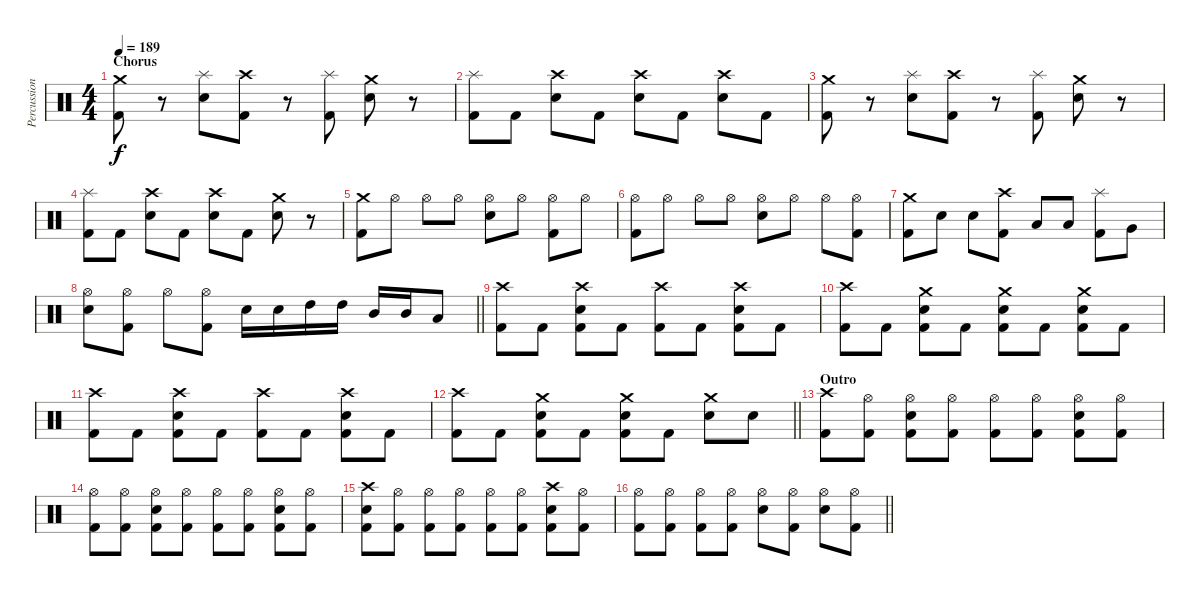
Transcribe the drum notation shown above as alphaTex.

\track ("Percussion" "Percussion") {instrument percussion}
\staff {score}
\articulation defaults
\ts (4 4)
\section ("" "Chorus")
\tempo 189
\clef neutral
\ks c
("Crash medium (hit)" "Kick (hit) 2").8{dy f} r.8 ("Splash (hit)" "Electric Snare (hit)").8 ("Crash high (hit)" "Kick (hit) 2").8 r.8 ("Splash (hit)" "Kick (hit) 2").8 ("Crash medium (hit)" "Electric Snare (hit)").8 r.8 |
("Splash (hit)" "Kick (hit) 2").8 "Kick (hit) 2".8 ("Crash high (hit)" "Electric Snare (hit)").8 "Kick (hit) 2".8 ("Crash high (hit)" "Electric Snare (hit)").8 "Kick (hit) 2".8 ("Crash high (hit)" "Electric Snare (hit)").8 "Kick (hit) 2".8 |
("Crash medium (hit)" "Kick (hit) 2").8 r.8 ("Splash (hit)" "Electric Snare (hit)").8 ("Crash high (hit)" "Kick (hit) 2").8 r.8 ("Splash (hit)" "Kick (hit) 2").8 ("Crash medium (hit)" "Electric Snare (hit)").8 r.8 |
("Splash (hit)" "Kick (hit) 2").8 "Kick (hit) 2".8 ("Crash high (hit)" "Electric Snare (hit)").8 "Kick (hit) 2".8 ("Crash high (hit)" "Electric Snare (hit)").8 "Kick (hit) 2".8 ("Crash medium (hit)" "Electric Snare (hit)").8 r.8 |
("Crash medium (hit)" "Kick (hit) 2").8 "Hi-Hat (open)".8 "Hi-Hat (open)".8 "Hi-Hat (open)".8 ("Hi-Hat (open)" "Electric Snare (hit)").8 "Hi-Hat (open)".8 ("Hi-Hat (open)" "Kick (hit) 2").8 "Hi-Hat (open)".8 |
("Hi-Hat (open)" "Kick (hit) 2").8 "Hi-Hat (open)".8 "Hi-Hat (open)".8 "Hi-Hat (open)".8 ("Hi-Hat (open)" "Electric Snare (hit)").8 "Hi-Hat (open)".8 "Hi-Hat (open)".8 ("Hi-Hat (open)" "Kick (hit) 2").8 |
("Crash medium (hit)" "Kick (hit) 2").8 "Electric Snare (hit)".8 "Electric Snare (hit)".8 ("Crash high (hit)" "Kick (hit) 2").8 "Low Tom (hit)".8 "Low Tom (hit)".8 ("Splash (hit)" "Kick (hit) 2").8 "Very Low Tom (hit)".8 |
\barLineRight lightlight
("Hi-Hat (open)" "Electric Snare (hit)").8 ("Hi-Hat (open)" "Kick (hit) 2").8 "Hi-Hat (open)".8 ("Hi-Hat (open)" "Kick (hit) 2").8 "Electric Snare (hit)".16 "Electric Snare (hit)".16 "High Tom (hit)".16 "High Tom (hit)".16 "Mid Tom (hit)".16 "Mid Tom (hit)".16 "Low Tom (hit)".8 |
("Crash high (hit)" "Kick (hit) 2").8 "Kick (hit) 2".8 ("Crash high (hit)" "Electric Snare (hit)" "Kick (hit) 2").8 "Kick (hit) 2".8 ("Crash high (hit)" "Kick (hit) 2").8 "Kick (hit) 2".8 ("Crash high (hit)" "Electric Snare (hit)" "Kick (hit) 2").8 "Kick (hit) 2".8 |
("Crash high (hit)" "Kick (hit) 2").8 "Kick (hit) 2".8 ("Crash medium (hit)" "Electric Snare (hit)" "Kick (hit) 2").8 "Kick (hit) 2".8 ("Crash medium (hit)" "Electric Snare (hit)" "Kick (hit) 2").8 "Kick (hit) 2".8 ("Crash medium (hit)" "Electric Snare (hit)" "Kick (hit) 2").8 "Kick (hit) 2".8 |
("Crash high (hit)" "Kick (hit) 2").8 "Kick (hit) 2".8 ("Crash high (hit)" "Electric Snare (hit)" "Kick (hit) 2").8 "Kick (hit) 2".8 ("Crash high (hit)" "Kick (hit) 2").8 "Kick (hit) 2".8 ("Crash high (hit)" "Electric Snare (hit)" "Kick (hit) 2").8 "Kick (hit) 2".8 |
\barLineRight lightlight
("Crash high (hit)" "Kick (hit) 2").8 "Kick (hit) 2".8 ("Crash medium (hit)" "Electric Snare (hit)" "Kick (hit) 2").8 "Kick (hit) 2".8 ("Crash medium (hit)" "Electric Snare (hit)" "Kick (hit) 2").8 "Kick (hit) 2".8 ("Crash medium (hit)" "Electric Snare (hit)").8 "Electric Snare (hit)".8 |
\section ("" "Outro")
("Crash high (hit)" "Kick (hit) 2").8 ("Hi-Hat (open)" "Kick (hit) 2").8 ("Hi-Hat (open)" "Electric Snare (hit)" "Kick (hit) 2").8 ("Hi-Hat (open)" "Kick (hit) 2").8 ("Hi-Hat (open)" "Kick (hit) 2").8 ("Hi-Hat (open)" "Kick (hit) 2").8 ("Hi-Hat (open)" "Electric Snare (hit)" "Kick (hit) 2").8 ("Hi-Hat (open)" "Kick (hit) 2").8 |
("Hi-Hat (open)" "Kick (hit) 2").8 ("Hi-Hat (open)" "Kick (hit) 2").8 ("Hi-Hat (open)" "Electric Snare (hit)" "Kick (hit) 2").8 ("Hi-Hat (open)" "Kick (hit) 2").8 ("Hi-Hat (open)" "Kick (hit) 2").8 ("Hi-Hat (open)" "Kick (hit) 2").8 ("Hi-Hat (open)" "Electric Snare (hit)" "Kick (hit) 2").8 ("Hi-Hat (open)" "Kick (hit) 2").8 |
("Crash high (hit)" "Electric Snare (hit)" "Kick (hit) 2").8 ("Hi-Hat (open)" "Kick (hit) 2").8 ("Hi-Hat (open)" "Kick (hit) 2").8 ("Hi-Hat (open)" "Kick (hit) 2").8 ("Hi-Hat (open)" "Kick (hit) 2").8 ("Hi-Hat (open)" "Kick (hit) 2").8 ("Crash high (hit)" "Electric Snare (hit)" "Kick (hit) 2").8 ("Hi-Hat (open)" "Kick (hit) 2").8 |
\barLineRight lightlight
("Hi-Hat (open)" "Kick (hit) 2").8 ("Hi-Hat (open)" "Kick (hit) 2").8 ("Hi-Hat (open)" "Kick (hit) 2").8 ("Hi-Hat (open)" "Kick (hit) 2").8 ("Hi-Hat (open)" "Electric Snare (hit)").8 ("Hi-Hat (open)" "Kick (hit) 2").8 ("Hi-Hat (open)" "Electric Snare (hit)").8 ("Hi-Hat (open)" "Kick (hit) 2").8
